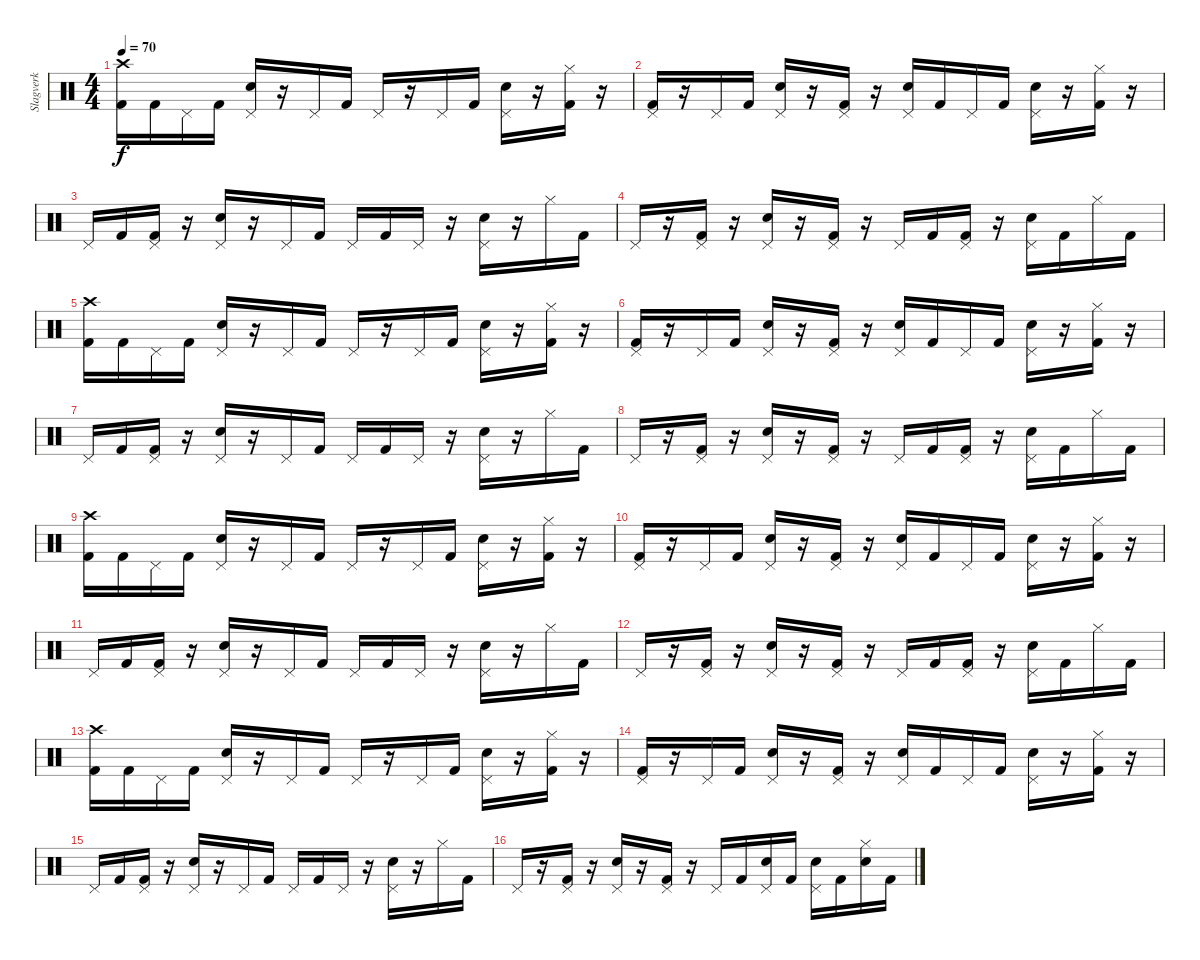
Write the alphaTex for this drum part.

\track ("Slagverk" "Slagverk") {instrument percussion}
\staff {score}
\articulation defaults
\ts (4 4)
\tempo 70
\clef neutral
\ks c
("Crash high (hit)" "Kick (hit) 2").16{dy f} "Kick (hit) 2".16 "Pedal Hi-Hat (hit)".16 "Kick (hit) 2".16 ("Pedal Hi-Hat (hit)" "Electric Snare (hit)").16 r.16 "Pedal Hi-Hat (hit)".16 "Kick (hit) 2".16 "Pedal Hi-Hat (hit)".16 r.16 "Pedal Hi-Hat (hit)".16 "Kick (hit) 2".16 ("Pedal Hi-Hat (hit)" "Electric Snare (hit)").16 r.16 ("Hi-Hat (closed)" "Kick (hit) 2").16 r.16 |
("Pedal Hi-Hat (hit)" "Kick (hit) 2").16 r.16 "Pedal Hi-Hat (hit)".16 "Kick (hit) 2".16 ("Pedal Hi-Hat (hit)" "Electric Snare (hit)").16 r.16 ("Pedal Hi-Hat (hit)" "Kick (hit) 2").16 r.16 ("Pedal Hi-Hat (hit)" "Electric Snare (hit)").16 "Kick (hit) 2".16 "Pedal Hi-Hat (hit)".16 "Kick (hit) 2".16 ("Pedal Hi-Hat (hit)" "Electric Snare (hit)").16 r.16 ("Hi-Hat (closed)" "Kick (hit) 2").16 r.16 |
"Pedal Hi-Hat (hit)".16 "Kick (hit) 2".16 ("Pedal Hi-Hat (hit)" "Kick (hit) 2").16 r.16 ("Pedal Hi-Hat (hit)" "Electric Snare (hit)").16 r.16 "Pedal Hi-Hat (hit)".16 "Kick (hit) 2".16 "Pedal Hi-Hat (hit)".16 "Kick (hit) 2".16 "Pedal Hi-Hat (hit)".16 r.16 ("Pedal Hi-Hat (hit)" "Electric Snare (hit)").16 r.16 "Hi-Hat (closed)".16 "Kick (hit) 2".16 |
"Pedal Hi-Hat (hit)".16 r.16 ("Pedal Hi-Hat (hit)" "Kick (hit) 2").16 r.16 ("Pedal Hi-Hat (hit)" "Electric Snare (hit)").16 r.16 ("Pedal Hi-Hat (hit)" "Kick (hit) 2").16 r.16 "Pedal Hi-Hat (hit)".16 "Kick (hit) 2".16 ("Pedal Hi-Hat (hit)" "Kick (hit) 2").16 r.16 ("Pedal Hi-Hat (hit)" "Electric Snare (hit)").16 "Kick (hit) 2".16 "Hi-Hat (closed)".16 "Kick (hit) 2".16 |
("Crash high (hit)" "Kick (hit) 2").16 "Kick (hit) 2".16 "Pedal Hi-Hat (hit)".16 "Kick (hit) 2".16 ("Pedal Hi-Hat (hit)" "Electric Snare (hit)").16 r.16 "Pedal Hi-Hat (hit)".16 "Kick (hit) 2".16 "Pedal Hi-Hat (hit)".16 r.16 "Pedal Hi-Hat (hit)".16 "Kick (hit) 2".16 ("Pedal Hi-Hat (hit)" "Electric Snare (hit)").16 r.16 ("Hi-Hat (closed)" "Kick (hit) 2").16 r.16 |
("Pedal Hi-Hat (hit)" "Kick (hit) 2").16 r.16 "Pedal Hi-Hat (hit)".16 "Kick (hit) 2".16 ("Pedal Hi-Hat (hit)" "Electric Snare (hit)").16 r.16 ("Pedal Hi-Hat (hit)" "Kick (hit) 2").16 r.16 ("Pedal Hi-Hat (hit)" "Electric Snare (hit)").16 "Kick (hit) 2".16 "Pedal Hi-Hat (hit)".16 "Kick (hit) 2".16 ("Pedal Hi-Hat (hit)" "Electric Snare (hit)").16 r.16 ("Hi-Hat (closed)" "Kick (hit) 2").16 r.16 |
"Pedal Hi-Hat (hit)".16 "Kick (hit) 2".16 ("Pedal Hi-Hat (hit)" "Kick (hit) 2").16 r.16 ("Pedal Hi-Hat (hit)" "Electric Snare (hit)").16 r.16 "Pedal Hi-Hat (hit)".16 "Kick (hit) 2".16 "Pedal Hi-Hat (hit)".16 "Kick (hit) 2".16 "Pedal Hi-Hat (hit)".16 r.16 ("Pedal Hi-Hat (hit)" "Electric Snare (hit)").16 r.16 "Hi-Hat (closed)".16 "Kick (hit) 2".16 |
"Pedal Hi-Hat (hit)".16 r.16 ("Pedal Hi-Hat (hit)" "Kick (hit) 2").16 r.16 ("Pedal Hi-Hat (hit)" "Electric Snare (hit)").16 r.16 ("Pedal Hi-Hat (hit)" "Kick (hit) 2").16 r.16 "Pedal Hi-Hat (hit)".16 "Kick (hit) 2".16 ("Pedal Hi-Hat (hit)" "Kick (hit) 2").16 r.16 ("Pedal Hi-Hat (hit)" "Electric Snare (hit)").16 "Kick (hit) 2".16 "Hi-Hat (closed)".16 "Kick (hit) 2".16 |
("Crash high (hit)" "Kick (hit) 2").16 "Kick (hit) 2".16 "Pedal Hi-Hat (hit)".16 "Kick (hit) 2".16 ("Pedal Hi-Hat (hit)" "Electric Snare (hit)").16 r.16 "Pedal Hi-Hat (hit)".16 "Kick (hit) 2".16 "Pedal Hi-Hat (hit)".16 r.16 "Pedal Hi-Hat (hit)".16 "Kick (hit) 2".16 ("Pedal Hi-Hat (hit)" "Electric Snare (hit)").16 r.16 ("Hi-Hat (closed)" "Kick (hit) 2").16 r.16 |
("Pedal Hi-Hat (hit)" "Kick (hit) 2").16 r.16 "Pedal Hi-Hat (hit)".16 "Kick (hit) 2".16 ("Pedal Hi-Hat (hit)" "Electric Snare (hit)").16 r.16 ("Pedal Hi-Hat (hit)" "Kick (hit) 2").16 r.16 ("Pedal Hi-Hat (hit)" "Electric Snare (hit)").16 "Kick (hit) 2".16 "Pedal Hi-Hat (hit)".16 "Kick (hit) 2".16 ("Pedal Hi-Hat (hit)" "Electric Snare (hit)").16 r.16 ("Hi-Hat (closed)" "Kick (hit) 2").16 r.16 |
"Pedal Hi-Hat (hit)".16 "Kick (hit) 2".16 ("Pedal Hi-Hat (hit)" "Kick (hit) 2").16 r.16 ("Pedal Hi-Hat (hit)" "Electric Snare (hit)").16 r.16 "Pedal Hi-Hat (hit)".16 "Kick (hit) 2".16 "Pedal Hi-Hat (hit)".16 "Kick (hit) 2".16 "Pedal Hi-Hat (hit)".16 r.16 ("Pedal Hi-Hat (hit)" "Electric Snare (hit)").16 r.16 "Hi-Hat (closed)".16 "Kick (hit) 2".16 |
"Pedal Hi-Hat (hit)".16 r.16 ("Pedal Hi-Hat (hit)" "Kick (hit) 2").16 r.16 ("Pedal Hi-Hat (hit)" "Electric Snare (hit)").16 r.16 ("Pedal Hi-Hat (hit)" "Kick (hit) 2").16 r.16 "Pedal Hi-Hat (hit)".16 "Kick (hit) 2".16 ("Pedal Hi-Hat (hit)" "Kick (hit) 2").16 r.16 ("Pedal Hi-Hat (hit)" "Electric Snare (hit)").16 "Kick (hit) 2".16 "Hi-Hat (closed)".16 "Kick (hit) 2".16 |
("Crash high (hit)" "Kick (hit) 2").16 "Kick (hit) 2".16 "Pedal Hi-Hat (hit)".16 "Kick (hit) 2".16 ("Pedal Hi-Hat (hit)" "Electric Snare (hit)").16 r.16 "Pedal Hi-Hat (hit)".16 "Kick (hit) 2".16 "Pedal Hi-Hat (hit)".16 r.16 "Pedal Hi-Hat (hit)".16 "Kick (hit) 2".16 ("Pedal Hi-Hat (hit)" "Electric Snare (hit)").16 r.16 ("Hi-Hat (closed)" "Kick (hit) 2").16 r.16 |
("Pedal Hi-Hat (hit)" "Kick (hit) 2").16 r.16 "Pedal Hi-Hat (hit)".16 "Kick (hit) 2".16 ("Pedal Hi-Hat (hit)" "Electric Snare (hit)").16 r.16 ("Pedal Hi-Hat (hit)" "Kick (hit) 2").16 r.16 ("Pedal Hi-Hat (hit)" "Electric Snare (hit)").16 "Kick (hit) 2".16 "Pedal Hi-Hat (hit)".16 "Kick (hit) 2".16 ("Pedal Hi-Hat (hit)" "Electric Snare (hit)").16 r.16 ("Hi-Hat (closed)" "Kick (hit) 2").16 r.16 |
"Pedal Hi-Hat (hit)".16 "Kick (hit) 2".16 ("Pedal Hi-Hat (hit)" "Kick (hit) 2").16 r.16 ("Pedal Hi-Hat (hit)" "Electric Snare (hit)").16 r.16 "Pedal Hi-Hat (hit)".16 "Kick (hit) 2".16 "Pedal Hi-Hat (hit)".16 "Kick (hit) 2".16 "Pedal Hi-Hat (hit)".16 r.16 ("Pedal Hi-Hat (hit)" "Electric Snare (hit)").16 r.16 "Hi-Hat (closed)".16 "Kick (hit) 2".16 |
"Pedal Hi-Hat (hit)".16 r.16 ("Pedal Hi-Hat (hit)" "Kick (hit) 2").16 r.16 ("Pedal Hi-Hat (hit)" "Electric Snare (hit)").16 r.16 ("Pedal Hi-Hat (hit)" "Kick (hit) 2").16 r.16 "Pedal Hi-Hat (hit)".16 "Kick (hit) 2".16 ("Pedal Hi-Hat (hit)" "Electric Snare (hit)").16 "Kick (hit) 2".16 ("Pedal Hi-Hat (hit)" "Electric Snare (hit)").16 "Kick (hit) 2".16 ("Hi-Hat (closed)" "Electric Snare (hit)").16 "Kick (hit) 2".16
